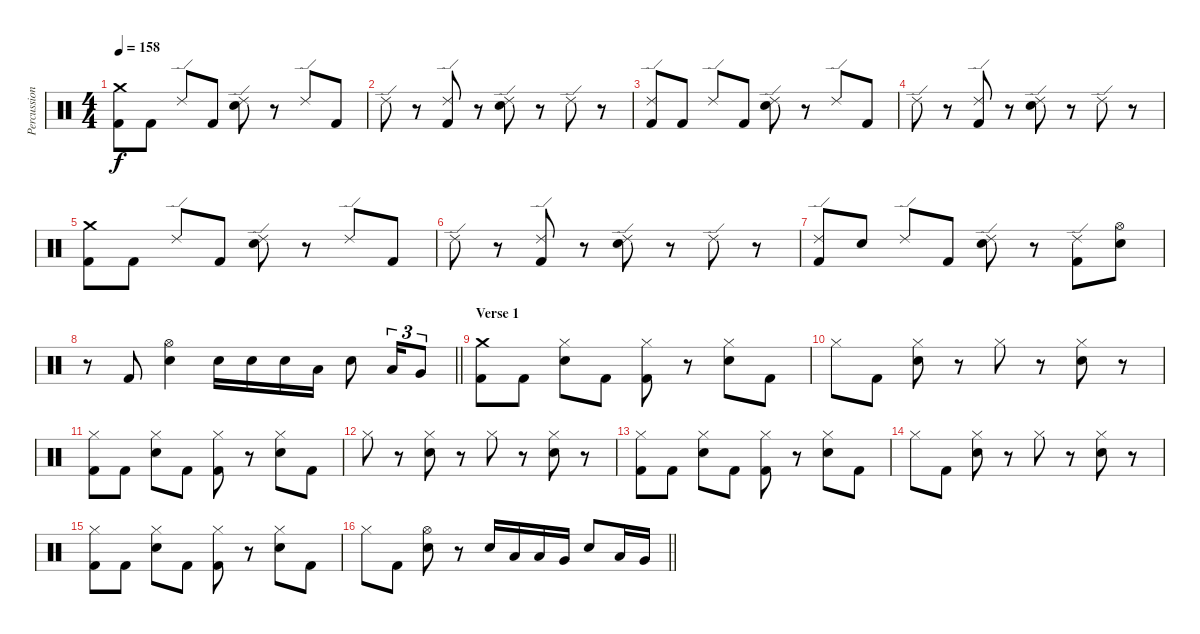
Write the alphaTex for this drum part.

\track ("Percussion" "Percussion") {instrument percussion}
\staff {score}
\articulation defaults
\ts (4 4)
\tempo 158
\clef neutral
\ks c
("Crash medium (hit)" "Kick (hit) 2").8{dy f} "Kick (hit) 2".8 "Ride (edge) 2".8 "Kick (hit) 2".8 ("Ride (edge) 2" "Electric Snare (hit)").8 r.8 "Ride (edge) 2".8 "Kick (hit) 2".8 |
"Ride (edge) 2".8 r.8 ("Ride (edge) 2" "Kick (hit) 2").8 r.8 ("Ride (edge) 2" "Electric Snare (hit)").8 r.8 "Ride (edge) 2".8 r.8 |
("Ride (edge) 2" "Kick (hit) 2").8 "Kick (hit) 2".8 "Ride (edge) 2".8 "Kick (hit) 2".8 ("Ride (edge) 2" "Electric Snare (hit)").8 r.8 "Ride (edge) 2".8 "Kick (hit) 2".8 |
"Ride (edge) 2".8 r.8 ("Ride (edge) 2" "Kick (hit) 2").8 r.8 ("Ride (edge) 2" "Electric Snare (hit)").8 r.8 "Ride (edge) 2".8 r.8 |
("Crash medium (hit)" "Kick (hit) 2").8 "Kick (hit) 2".8 "Ride (edge) 2".8 "Kick (hit) 2".8 ("Ride (edge) 2" "Electric Snare (hit)").8 r.8 "Ride (edge) 2".8 "Kick (hit) 2".8 |
"Ride (edge) 2".8 r.8 ("Ride (edge) 2" "Kick (hit) 2").8 r.8 ("Ride (edge) 2" "Electric Snare (hit)").8 r.8 "Ride (edge) 2".8 r.8 |
("Ride (edge) 2" "Kick (hit) 2").8 "Electric Snare (hit)".8 "Ride (edge) 2".8 "Kick (hit) 2".8 ("Ride (edge) 2" "Electric Snare (hit)").8 r.8 ("Ride (edge) 2" "Kick (hit) 2").8 ("Hi-Hat (open)" "Electric Snare (hit)").8 |
\barLineRight lightlight
r.8 "Kick (hit) 2".8 ("Hi-Hat (open)" "Electric Snare (hit)").4 "Electric Snare (hit)".16 "Electric Snare (hit)".16 "Electric Snare (hit)".16 "Low Tom (hit)".16 "Electric Snare (hit)".8 "Low Tom (hit)".16{tu (3 2)} "Very Low Tom (hit)".8{tu (3 2)} |
\section ("" "Verse 1")
("Crash medium (hit)" "Kick (hit) 2").8 "Kick (hit) 2".8 ("Hi-Hat (closed)" "Electric Snare (hit)").8 "Kick (hit) 2".8 ("Hi-Hat (closed)" "Kick (hit) 2").8 r.8 ("Hi-Hat (closed)" "Electric Snare (hit)").8 "Kick (hit) 2".8 |
"Hi-Hat (closed)".8 "Kick (hit) 2".8 ("Hi-Hat (closed)" "Electric Snare (hit)").8 r.8 "Hi-Hat (closed)".8 r.8 ("Hi-Hat (closed)" "Electric Snare (hit)").8 r.8 |
("Hi-Hat (closed)" "Kick (hit) 2").8 "Kick (hit) 2".8 ("Hi-Hat (closed)" "Electric Snare (hit)").8 "Kick (hit) 2".8 ("Hi-Hat (closed)" "Kick (hit) 2").8 r.8 ("Hi-Hat (closed)" "Electric Snare (hit)").8 "Kick (hit) 2".8 |
"Hi-Hat (closed)".8 r.8 ("Hi-Hat (closed)" "Electric Snare (hit)").8 r.8 "Hi-Hat (closed)".8 r.8 ("Hi-Hat (closed)" "Electric Snare (hit)").8 r.8 |
("Hi-Hat (closed)" "Kick (hit) 2").8 "Kick (hit) 2".8 ("Hi-Hat (closed)" "Electric Snare (hit)").8 "Kick (hit) 2".8 ("Hi-Hat (closed)" "Kick (hit) 2").8 r.8 ("Hi-Hat (closed)" "Electric Snare (hit)").8 "Kick (hit) 2".8 |
"Hi-Hat (closed)".8 "Kick (hit) 2".8 ("Hi-Hat (closed)" "Electric Snare (hit)").8 r.8 "Hi-Hat (closed)".8 r.8 ("Hi-Hat (closed)" "Electric Snare (hit)").8 r.8 |
("Hi-Hat (closed)" "Kick (hit) 2").8 "Kick (hit) 2".8 ("Hi-Hat (closed)" "Electric Snare (hit)").8 "Kick (hit) 2".8 ("Hi-Hat (closed)" "Kick (hit) 2").8 r.8 ("Hi-Hat (closed)" "Electric Snare (hit)").8 "Kick (hit) 2".8 |
\barLineRight lightlight "Hi-Hat (closed)".8 "Kick (hit) 2".8
("Hi-Hat (open)" "Electric Snare (hit)").8 r.8 "Electric Snare (hit)".16 "Low Tom (hit)".16 "Low Tom (hit)".16 "Very Low Tom (hit)".16 "Electric Snare (hit)".8 "Low Tom (hit)".16 "Very Low Tom (hit)".16
